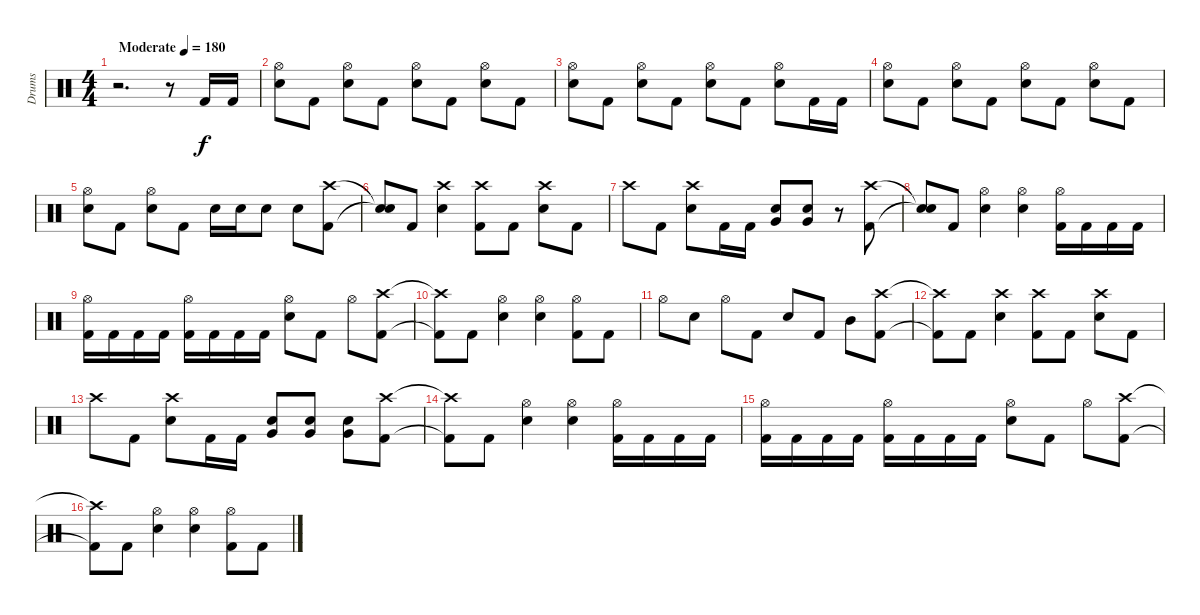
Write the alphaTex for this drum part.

\track ("Drums" "Drums") {instrument percussion}
\staff {score}
\articulation defaults
\ts (4 4)
\tempo (180 "Moderate")
\clef neutral
\ks c
r.2{d dy f} r.8 "Kick (hit) 2".16 "Kick (hit) 2".16 |
("Hi-Hat (open)" "Electric Snare (hit)").8 "Kick (hit) 2".8 ("Hi-Hat (open)" "Electric Snare (hit)").8 "Kick (hit) 2".8 ("Hi-Hat (open)" "Electric Snare (hit)").8 "Kick (hit) 2".8 ("Hi-Hat (open)" "Electric Snare (hit)").8 "Kick (hit) 2".8 |
("Hi-Hat (open)" "Electric Snare (hit)").8 "Kick (hit) 2".8 ("Hi-Hat (open)" "Electric Snare (hit)").8 "Kick (hit) 2".8 ("Hi-Hat (open)" "Electric Snare (hit)").8 "Kick (hit) 2".8 ("Hi-Hat (open)" "Electric Snare (hit)").8 "Kick (hit) 2".16 "Kick (hit) 2".16 |
("Hi-Hat (open)" "Electric Snare (hit)").8 "Kick (hit) 2".8 ("Hi-Hat (open)" "Electric Snare (hit)").8 "Kick (hit) 2".8 ("Hi-Hat (open)" "Electric Snare (hit)").8 "Kick (hit) 2".8 ("Hi-Hat (open)" "Electric Snare (hit)").8 "Kick (hit) 2".8 |
("Hi-Hat (open)" "Electric Snare (hit)").8 "Kick (hit) 2".8 ("Hi-Hat (open)" "Electric Snare (hit)").8 "Kick (hit) 2".8 "Electric Snare (hit)".16 "Electric Snare (hit)".16 "Electric Snare (hit)".8 "Electric Snare (hit)".8 ("Crash high (hit)" "Kick (hit) 2").8 |
("Snare (hit)"{t} "Snare (hit)"{t}).8 "Kick (hit) 2".8 ("Crash high (hit)" "Electric Snare (hit)").4 ("Crash high (hit)" "Kick (hit) 2").8 "Kick (hit) 2".8 ("Crash high (hit)" "Electric Snare (hit)").8 "Kick (hit) 2".8 |
"Crash high (hit)".8 "Kick (hit) 2".8 ("Crash high (hit)" "Electric Snare (hit)").8 "Kick (hit) 2".16 "Kick (hit) 2".16 ("Very Low Tom (hit)" "Electric Snare (hit)").8 ("Very Low Tom (hit)" "Electric Snare (hit)").8 r.8 ("Crash high (hit)" "Kick (hit) 2").8 |
("Snare (hit)"{t} "Snare (hit)"{t}).8 "Kick (hit) 2".8 ("Hi-Hat (open)" "Electric Snare (hit)").4 ("Hi-Hat (open)" "Electric Snare (hit)").4 ("Hi-Hat (open)" "Kick (hit) 2").16 "Kick (hit) 2".16 "Kick (hit) 2".16 "Kick (hit) 2".16 |
("Hi-Hat (open)" "Kick (hit) 2").16 "Kick (hit) 2".16 "Kick (hit) 2".16 "Kick (hit) 2".16 ("Hi-Hat (open)" "Kick (hit) 2").16 "Kick (hit) 2".16 "Kick (hit) 2".16 "Kick (hit) 2".16 ("Hi-Hat (open)" "Electric Snare (hit)").8 "Kick (hit) 2".8 "Hi-Hat (open)".8 ("Crash high (hit)" "Kick (hit) 2").8 |
("Crash high (hit)"{t} "Kick (hit) 2"{t}).8 "Kick (hit) 2".8 ("Hi-Hat (open)" "Electric Snare (hit)").4 ("Hi-Hat (open)" "Electric Snare (hit)").4 ("Hi-Hat (open)" "Kick (hit) 2").8 "Kick (hit) 2".8 |
"Hi-Hat (open)".8 "Electric Snare (hit)".8 "Hi-Hat (open)".8 "Kick (hit) 2".8 "Electric Snare (hit)".8 "Kick (hit) 2".8 "Mid Tom (hit)".8 ("Crash high (hit)" "Kick (hit) 2").8 |
("Crash high (hit)"{t} "Kick (hit) 2"{t}).8 "Kick (hit) 2".8 ("Crash high (hit)" "Electric Snare (hit)").4 ("Crash high (hit)" "Kick (hit) 2").8 "Kick (hit) 2".8 ("Crash high (hit)" "Electric Snare (hit)").8 "Kick (hit) 2".8 |
"Crash high (hit)".8 "Kick (hit) 2".8 ("Crash high (hit)" "Electric Snare (hit)").8 "Kick (hit) 2".16 "Kick (hit) 2".16 ("Very Low Tom (hit)" "Electric Snare (hit)").8 ("Very Low Tom (hit)" "Electric Snare (hit)").8 ("Very Low Tom (hit)" "Electric Snare (hit)").8 ("Crash high (hit)" "Kick (hit) 2").8 |
("Crash high (hit)"{t} "Kick (hit) 2"{t}).8 "Kick (hit) 2".8 ("Hi-Hat (open)" "Electric Snare (hit)").4 ("Hi-Hat (open)" "Electric Snare (hit)").4 ("Hi-Hat (open)" "Kick (hit) 2").16 "Kick (hit) 2".16 "Kick (hit) 2".16 "Kick (hit) 2".16 |
("Hi-Hat (open)" "Kick (hit) 2").16 "Kick (hit) 2".16 "Kick (hit) 2".16 "Kick (hit) 2".16 ("Hi-Hat (open)" "Kick (hit) 2").16 "Kick (hit) 2".16 "Kick (hit) 2".16 "Kick (hit) 2".16 ("Hi-Hat (open)" "Electric Snare (hit)").8 "Kick (hit) 2".8 "Hi-Hat (open)".8 ("Crash high (hit)" "Kick (hit) 2").8 |
("Crash high (hit)"{t} "Kick (hit) 2"{t}).8 "Kick (hit) 2".8 ("Hi-Hat (open)" "Electric Snare (hit)").4 ("Hi-Hat (open)" "Electric Snare (hit)").4 ("Hi-Hat (open)" "Kick (hit) 2").8 "Kick (hit) 2".8
